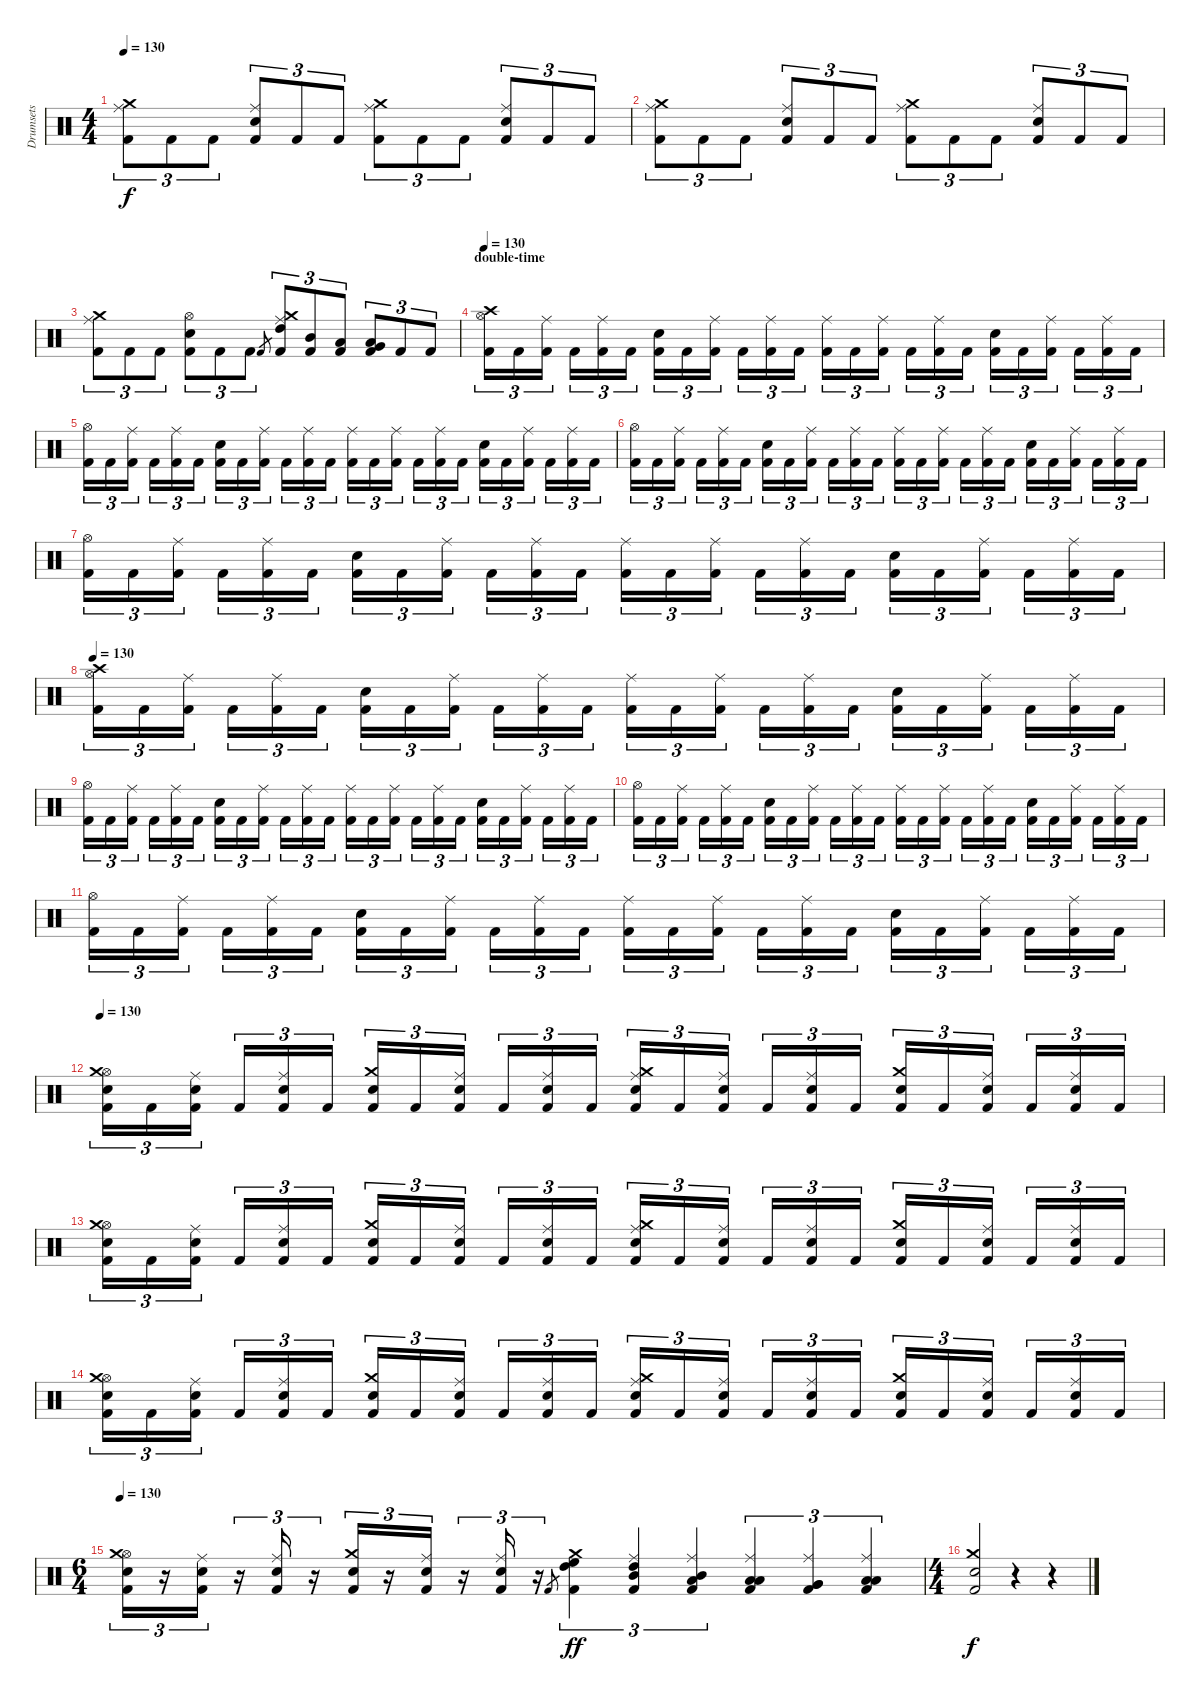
\track ("Drumsets" "Drumsets") {instrument percussion}
\staff {score}
\articulation defaults
\ts (4 4)
\tempo 130
\clef neutral
\ks c
("Kick (hit) 2" "Ride (middle)" "Crash medium (hit)").8{tu (3 2) dy f} "Kick (hit) 2".8{tu (3 2)} "Kick (hit) 2".8{tu (3 2)} ("Kick (hit) 2" "Snare (hit) 2" "Ride (middle)").8{tu (3 2)} "Kick (hit) 2".8{tu (3 2)} "Kick (hit) 2".8{tu (3 2)} ("Kick (hit) 2" "Ride (middle)" "Crash medium (hit)").8{tu (3 2)} "Kick (hit) 2".8{tu (3 2)} "Kick (hit) 2".8{tu (3 2)} ("Kick (hit) 2" "Snare (hit) 2" "Ride (middle)").8{tu (3 2)} "Kick (hit) 2".8{tu (3 2)} "Kick (hit) 2".8{tu (3 2)} |
("Kick (hit) 2" "Ride (middle)" "Crash medium (hit)").8{tu (3 2)} "Kick (hit) 2".8{tu (3 2)} "Kick (hit) 2".8{tu (3 2)} ("Kick (hit) 2" "Snare (hit) 2" "Ride (middle)").8{tu (3 2)} "Kick (hit) 2".8{tu (3 2)} "Kick (hit) 2".8{tu (3 2)} ("Kick (hit) 2" "Ride (middle)" "Crash medium (hit)").8{tu (3 2)} "Kick (hit) 2".8{tu (3 2)} "Kick (hit) 2".8{tu (3 2)} ("Kick (hit) 2" "Snare (hit) 2" "Ride (middle)").8{tu (3 2)} "Kick (hit) 2".8{tu (3 2)} "Kick (hit) 2".8{tu (3 2)} |
("Kick (hit) 2" "Ride (middle)" "Crash medium (hit)").8{tu (3 2)} "Kick (hit) 2".8{tu (3 2)} "Kick (hit) 2".8{tu (3 2)} ("Kick (hit) 2" "Snare (hit) 2" "Hi-Hat (open)").8{tu (3 2)} "Kick (hit) 2".8{tu (3 2)} "Kick (hit) 2".8{tu (3 2)} "Kick (hit) 2".8{gr} ("Kick (hit) 2" "High Tom (hit)" "Ride (middle)" "Crash medium (hit)").8{tu (3 2)} ("Kick (hit) 2" "Mid Tom (hit)").8{tu (3 2)} ("Kick (hit) 2" "Low Tom (hit)").8{tu (3 2)} ("Kick (hit) 2" "Low Floor Tom (hit)" "Very Low Tom (hit)").8{tu (3 2)} "Kick (hit) 2".8{tu (3 2)} "Kick (hit) 2".8{tu (3 2)} |
\section ("" "double-time")
\tempo 130
("Hi-Hat (open)" "Crash high (hit)" "Kick (hit) 2").16{tu (3 2)} "Kick (hit) 2".16{tu (3 2)} ("Ride (middle)" "Kick (hit) 2").16{tu (3 2)} "Kick (hit) 2".16{tu (3 2)} ("Ride (middle)" "Kick (hit) 2").16{tu (3 2)} "Kick (hit) 2".16{tu (3 2)} ("Snare (hit) 2" "Kick (hit) 2").16{tu (3 2)} "Kick (hit) 2".16{tu (3 2)} ("Ride (middle)" "Kick (hit) 2").16{tu (3 2)} "Kick (hit) 2".16{tu (3 2)} ("Ride (middle)" "Kick (hit) 2").16{tu (3 2)} "Kick (hit) 2".16{tu (3 2)} ("Ride (middle)" "Kick (hit) 2").16{tu (3 2)} "Kick (hit) 2".16{tu (3 2)} ("Ride (middle)" "Kick (hit) 2").16{tu (3 2)} "Kick (hit) 2".16{tu (3 2)} ("Ride (middle)" "Kick (hit) 2").16{tu (3 2)} "Kick (hit) 2".16{tu (3 2)} ("Snare (hit) 2" "Kick (hit) 2").16{tu (3 2)} "Kick (hit) 2".16{tu (3 2)} ("Ride (middle)" "Kick (hit) 2").16{tu (3 2)} "Kick (hit) 2".16{tu (3 2)} ("Ride (middle)" "Kick (hit) 2").16{tu (3 2)} "Kick (hit) 2".16{tu (3 2)} |
("Hi-Hat (open)" "Kick (hit) 2").16{tu (3 2)} "Kick (hit) 2".16{tu (3 2)} ("Ride (middle)" "Kick (hit) 2").16{tu (3 2)} "Kick (hit) 2".16{tu (3 2)} ("Ride (middle)" "Kick (hit) 2").16{tu (3 2)} "Kick (hit) 2".16{tu (3 2)} ("Snare (hit) 2" "Kick (hit) 2").16{tu (3 2)} "Kick (hit) 2".16{tu (3 2)} ("Ride (middle)" "Kick (hit) 2").16{tu (3 2)} "Kick (hit) 2".16{tu (3 2)} ("Ride (middle)" "Kick (hit) 2").16{tu (3 2)} "Kick (hit) 2".16{tu (3 2)} ("Ride (middle)" "Kick (hit) 2").16{tu (3 2)} "Kick (hit) 2".16{tu (3 2)} ("Ride (middle)" "Kick (hit) 2").16{tu (3 2)} "Kick (hit) 2".16{tu (3 2)} ("Ride (middle)" "Kick (hit) 2").16{tu (3 2)} "Kick (hit) 2".16{tu (3 2)} ("Snare (hit) 2" "Kick (hit) 2").16{tu (3 2)} "Kick (hit) 2".16{tu (3 2)} ("Ride (middle)" "Kick (hit) 2").16{tu (3 2)} "Kick (hit) 2".16{tu (3 2)} ("Ride (middle)" "Kick (hit) 2").16{tu (3 2)} "Kick (hit) 2".16{tu (3 2)} |
("Hi-Hat (open)" "Kick (hit) 2").16{tu (3 2)} "Kick (hit) 2".16{tu (3 2)} ("Ride (middle)" "Kick (hit) 2").16{tu (3 2)} "Kick (hit) 2".16{tu (3 2)} ("Ride (middle)" "Kick (hit) 2").16{tu (3 2)} "Kick (hit) 2".16{tu (3 2)} ("Snare (hit) 2" "Kick (hit) 2").16{tu (3 2)} "Kick (hit) 2".16{tu (3 2)} ("Ride (middle)" "Kick (hit) 2").16{tu (3 2)} "Kick (hit) 2".16{tu (3 2)} ("Ride (middle)" "Kick (hit) 2").16{tu (3 2)} "Kick (hit) 2".16{tu (3 2)} ("Ride (middle)" "Kick (hit) 2").16{tu (3 2)} "Kick (hit) 2".16{tu (3 2)} ("Ride (middle)" "Kick (hit) 2").16{tu (3 2)} "Kick (hit) 2".16{tu (3 2)} ("Ride (middle)" "Kick (hit) 2").16{tu (3 2)} "Kick (hit) 2".16{tu (3 2)} ("Snare (hit) 2" "Kick (hit) 2").16{tu (3 2)} "Kick (hit) 2".16{tu (3 2)} ("Ride (middle)" "Kick (hit) 2").16{tu (3 2)} "Kick (hit) 2".16{tu (3 2)} ("Ride (middle)" "Kick (hit) 2").16{tu (3 2)} "Kick (hit) 2".16{tu (3 2)} |
("Hi-Hat (open)" "Kick (hit) 2").16{tu (3 2)} "Kick (hit) 2".16{tu (3 2)} ("Ride (middle)" "Kick (hit) 2").16{tu (3 2)} "Kick (hit) 2".16{tu (3 2)} ("Ride (middle)" "Kick (hit) 2").16{tu (3 2)} "Kick (hit) 2".16{tu (3 2)} ("Snare (hit) 2" "Kick (hit) 2").16{tu (3 2)} "Kick (hit) 2".16{tu (3 2)} ("Ride (middle)" "Kick (hit) 2").16{tu (3 2)} "Kick (hit) 2".16{tu (3 2)} ("Ride (middle)" "Kick (hit) 2").16{tu (3 2)} "Kick (hit) 2".16{tu (3 2)} ("Ride (middle)" "Kick (hit) 2").16{tu (3 2)} "Kick (hit) 2".16{tu (3 2)} ("Ride (middle)" "Kick (hit) 2").16{tu (3 2)} "Kick (hit) 2".16{tu (3 2)} ("Ride (middle)" "Kick (hit) 2").16{tu (3 2)} "Kick (hit) 2".16{tu (3 2)} ("Snare (hit) 2" "Kick (hit) 2").16{tu (3 2)} "Kick (hit) 2".16{tu (3 2)} ("Ride (middle)" "Kick (hit) 2").16{tu (3 2)} "Kick (hit) 2".16{tu (3 2)} ("Ride (middle)" "Kick (hit) 2").16{tu (3 2)} "Kick (hit) 2".16{tu (3 2)} |
\tempo 130
("Hi-Hat (open)" "Crash high (hit)" "Kick (hit) 2").16{tu (3 2)} "Kick (hit) 2".16{tu (3 2)} ("Ride (middle)" "Kick (hit) 2").16{tu (3 2)} "Kick (hit) 2".16{tu (3 2)} ("Ride (middle)" "Kick (hit) 2").16{tu (3 2)} "Kick (hit) 2".16{tu (3 2)} ("Snare (hit) 2" "Kick (hit) 2").16{tu (3 2)} "Kick (hit) 2".16{tu (3 2)} ("Ride (middle)" "Kick (hit) 2").16{tu (3 2)} "Kick (hit) 2".16{tu (3 2)} ("Ride (middle)" "Kick (hit) 2").16{tu (3 2)} "Kick (hit) 2".16{tu (3 2)} ("Ride (middle)" "Kick (hit) 2").16{tu (3 2)} "Kick (hit) 2".16{tu (3 2)} ("Ride (middle)" "Kick (hit) 2").16{tu (3 2)} "Kick (hit) 2".16{tu (3 2)} ("Ride (middle)" "Kick (hit) 2").16{tu (3 2)} "Kick (hit) 2".16{tu (3 2)} ("Snare (hit) 2" "Kick (hit) 2").16{tu (3 2)} "Kick (hit) 2".16{tu (3 2)} ("Ride (middle)" "Kick (hit) 2").16{tu (3 2)} "Kick (hit) 2".16{tu (3 2)} ("Ride (middle)" "Kick (hit) 2").16{tu (3 2)} "Kick (hit) 2".16{tu (3 2)} |
("Hi-Hat (open)" "Kick (hit) 2").16{tu (3 2)} "Kick (hit) 2".16{tu (3 2)} ("Ride (middle)" "Kick (hit) 2").16{tu (3 2)} "Kick (hit) 2".16{tu (3 2)} ("Ride (middle)" "Kick (hit) 2").16{tu (3 2)} "Kick (hit) 2".16{tu (3 2)} ("Snare (hit) 2" "Kick (hit) 2").16{tu (3 2)} "Kick (hit) 2".16{tu (3 2)} ("Ride (middle)" "Kick (hit) 2").16{tu (3 2)} "Kick (hit) 2".16{tu (3 2)} ("Ride (middle)" "Kick (hit) 2").16{tu (3 2)} "Kick (hit) 2".16{tu (3 2)} ("Ride (middle)" "Kick (hit) 2").16{tu (3 2)} "Kick (hit) 2".16{tu (3 2)} ("Ride (middle)" "Kick (hit) 2").16{tu (3 2)} "Kick (hit) 2".16{tu (3 2)} ("Ride (middle)" "Kick (hit) 2").16{tu (3 2)} "Kick (hit) 2".16{tu (3 2)} ("Snare (hit) 2" "Kick (hit) 2").16{tu (3 2)} "Kick (hit) 2".16{tu (3 2)} ("Ride (middle)" "Kick (hit) 2").16{tu (3 2)} "Kick (hit) 2".16{tu (3 2)} ("Ride (middle)" "Kick (hit) 2").16{tu (3 2)} "Kick (hit) 2".16{tu (3 2)} |
("Hi-Hat (open)" "Kick (hit) 2").16{tu (3 2)} "Kick (hit) 2".16{tu (3 2)} ("Ride (middle)" "Kick (hit) 2").16{tu (3 2)} "Kick (hit) 2".16{tu (3 2)} ("Ride (middle)" "Kick (hit) 2").16{tu (3 2)} "Kick (hit) 2".16{tu (3 2)} ("Snare (hit) 2" "Kick (hit) 2").16{tu (3 2)} "Kick (hit) 2".16{tu (3 2)} ("Ride (middle)" "Kick (hit) 2").16{tu (3 2)} "Kick (hit) 2".16{tu (3 2)} ("Ride (middle)" "Kick (hit) 2").16{tu (3 2)} "Kick (hit) 2".16{tu (3 2)} ("Ride (middle)" "Kick (hit) 2").16{tu (3 2)} "Kick (hit) 2".16{tu (3 2)} ("Ride (middle)" "Kick (hit) 2").16{tu (3 2)} "Kick (hit) 2".16{tu (3 2)} ("Ride (middle)" "Kick (hit) 2").16{tu (3 2)} "Kick (hit) 2".16{tu (3 2)} ("Snare (hit) 2" "Kick (hit) 2").16{tu (3 2)} "Kick (hit) 2".16{tu (3 2)} ("Ride (middle)" "Kick (hit) 2").16{tu (3 2)} "Kick (hit) 2".16{tu (3 2)} ("Ride (middle)" "Kick (hit) 2").16{tu (3 2)} "Kick (hit) 2".16{tu (3 2)} |
("Hi-Hat (open)" "Kick (hit) 2").16{tu (3 2)} "Kick (hit) 2".16{tu (3 2)} ("Ride (middle)" "Kick (hit) 2").16{tu (3 2)} "Kick (hit) 2".16{tu (3 2)} ("Ride (middle)" "Kick (hit) 2").16{tu (3 2)} "Kick (hit) 2".16{tu (3 2)} ("Snare (hit) 2" "Kick (hit) 2").16{tu (3 2)} "Kick (hit) 2".16{tu (3 2)} ("Ride (middle)" "Kick (hit) 2").16{tu (3 2)} "Kick (hit) 2".16{tu (3 2)} ("Ride (middle)" "Kick (hit) 2").16{tu (3 2)} "Kick (hit) 2".16{tu (3 2)} ("Ride (middle)" "Kick (hit) 2").16{tu (3 2)} "Kick (hit) 2".16{tu (3 2)} ("Ride (middle)" "Kick (hit) 2").16{tu (3 2)} "Kick (hit) 2".16{tu (3 2)} ("Ride (middle)" "Kick (hit) 2").16{tu (3 2)} "Kick (hit) 2".16{tu (3 2)} ("Snare (hit) 2" "Kick (hit) 2").16{tu (3 2)} "Kick (hit) 2".16{tu (3 2)} ("Ride (middle)" "Kick (hit) 2").16{tu (3 2)} "Kick (hit) 2".16{tu (3 2)} ("Ride (middle)" "Kick (hit) 2").16{tu (3 2)} "Kick (hit) 2".16{tu (3 2)} |
\tempo 130
("Hi-Hat (open)" "Snare (hit) 2" "Crash medium (hit)" "Kick (hit) 2").16{tu (3 2)} "Kick (hit) 2".16{tu (3 2)} ("Ride (middle)" "Snare (hit) 2" "Kick (hit) 2").16{tu (3 2)} "Kick (hit) 2".16{tu (3 2)} ("Ride (middle)" "Snare (hit) 2" "Kick (hit) 2").16{tu (3 2)} "Kick (hit) 2".16{tu (3 2)} ("Snare (hit) 2" "Crash medium (hit)" "Kick (hit) 2").16{tu (3 2)} "Kick (hit) 2".16{tu (3 2)} ("Ride (middle)" "Snare (hit) 2" "Kick (hit) 2").16{tu (3 2)} "Kick (hit) 2".16{tu (3 2)} ("Ride (middle)" "Snare (hit) 2" "Kick (hit) 2").16{tu (3 2)} "Kick (hit) 2".16{tu (3 2)} ("Ride (middle)" "Snare (hit) 2" "Crash medium (hit)" "Kick (hit) 2").16{tu (3 2)} "Kick (hit) 2".16{tu (3 2)} ("Ride (middle)" "Snare (hit) 2" "Kick (hit) 2").16{tu (3 2)} "Kick (hit) 2".16{tu (3 2)} ("Ride (middle)" "Snare (hit) 2" "Kick (hit) 2").16{tu (3 2)} "Kick (hit) 2".16{tu (3 2)} ("Snare (hit) 2" "Crash medium (hit)" "Kick (hit) 2").16{tu (3 2)} "Kick (hit) 2".16{tu (3 2)} ("Ride (middle)" "Snare (hit) 2" "Kick (hit) 2").16{tu (3 2)} "Kick (hit) 2".16{tu (3 2)} ("Ride (middle)" "Snare (hit) 2" "Kick (hit) 2").16{tu (3 2)} "Kick (hit) 2".16{tu (3 2)} |
("Hi-Hat (open)" "Snare (hit) 2" "Crash medium (hit)" "Kick (hit) 2").16{tu (3 2)} "Kick (hit) 2".16{tu (3 2)} ("Ride (middle)" "Snare (hit) 2" "Kick (hit) 2").16{tu (3 2)} "Kick (hit) 2".16{tu (3 2)} ("Ride (middle)" "Snare (hit) 2" "Kick (hit) 2").16{tu (3 2)} "Kick (hit) 2".16{tu (3 2)} ("Snare (hit) 2" "Crash medium (hit)" "Kick (hit) 2").16{tu (3 2)} "Kick (hit) 2".16{tu (3 2)} ("Ride (middle)" "Snare (hit) 2" "Kick (hit) 2").16{tu (3 2)} "Kick (hit) 2".16{tu (3 2)} ("Ride (middle)" "Snare (hit) 2" "Kick (hit) 2").16{tu (3 2)} "Kick (hit) 2".16{tu (3 2)} ("Ride (middle)" "Snare (hit) 2" "Crash medium (hit)" "Kick (hit) 2").16{tu (3 2)} "Kick (hit) 2".16{tu (3 2)} ("Ride (middle)" "Snare (hit) 2" "Kick (hit) 2").16{tu (3 2)} "Kick (hit) 2".16{tu (3 2)} ("Ride (middle)" "Snare (hit) 2" "Kick (hit) 2").16{tu (3 2)} "Kick (hit) 2".16{tu (3 2)} ("Snare (hit) 2" "Crash medium (hit)" "Kick (hit) 2").16{tu (3 2)} "Kick (hit) 2".16{tu (3 2)} ("Ride (middle)" "Snare (hit) 2" "Kick (hit) 2").16{tu (3 2)} "Kick (hit) 2".16{tu (3 2)} ("Ride (middle)" "Snare (hit) 2" "Kick (hit) 2").16{tu (3 2)} "Kick (hit) 2".16{tu (3 2)} |
("Hi-Hat (open)" "Snare (hit) 2" "Crash medium (hit)" "Kick (hit) 2").16{tu (3 2)} "Kick (hit) 2".16{tu (3 2)} ("Ride (middle)" "Snare (hit) 2" "Kick (hit) 2").16{tu (3 2)} "Kick (hit) 2".16{tu (3 2)} ("Ride (middle)" "Snare (hit) 2" "Kick (hit) 2").16{tu (3 2)} "Kick (hit) 2".16{tu (3 2)} ("Snare (hit) 2" "Crash medium (hit)" "Kick (hit) 2").16{tu (3 2)} "Kick (hit) 2".16{tu (3 2)} ("Ride (middle)" "Snare (hit) 2" "Kick (hit) 2").16{tu (3 2)} "Kick (hit) 2".16{tu (3 2)} ("Ride (middle)" "Snare (hit) 2" "Kick (hit) 2").16{tu (3 2)} "Kick (hit) 2".16{tu (3 2)} ("Ride (middle)" "Snare (hit) 2" "Crash medium (hit)" "Kick (hit) 2").16{tu (3 2)} "Kick (hit) 2".16{tu (3 2)} ("Ride (middle)" "Snare (hit) 2" "Kick (hit) 2").16{tu (3 2)} "Kick (hit) 2".16{tu (3 2)} ("Ride (middle)" "Snare (hit) 2" "Kick (hit) 2").16{tu (3 2)} "Kick (hit) 2".16{tu (3 2)} ("Snare (hit) 2" "Crash medium (hit)" "Kick (hit) 2").16{tu (3 2)} "Kick (hit) 2".16{tu (3 2)} ("Ride (middle)" "Snare (hit) 2" "Kick (hit) 2").16{tu (3 2)} "Kick (hit) 2".16{tu (3 2)} ("Ride (middle)" "Snare (hit) 2" "Kick (hit) 2").16{tu (3 2)} "Kick (hit) 2".16{tu (3 2)} |
\ts (6 4)
\tempo 130
("Hi-Hat (open)" "Snare (hit) 2" "Crash medium (hit)" "Kick (hit) 2").16{tu (3 2)} r.16{tu (3 2)} ("Ride (middle)" "Snare (hit) 2" "Kick (hit) 2").16{tu (3 2)} r.16{tu (3 2)} ("Ride (middle)" "Snare (hit) 2" "Kick (hit) 2").16{tu (3 2)} r.16{tu (3 2)} ("Snare (hit) 2" "Crash medium (hit)" "Kick (hit) 2").16{tu (3 2)} r.16{tu (3 2)} ("Ride (middle)" "Snare (hit) 2" "Kick (hit) 2").16{tu (3 2)} r.16{tu (3 2)} ("Ride (middle)" "Snare (hit) 2" "Kick (hit) 2").16{tu (3 2)} r.16{tu (3 2)} "Kick (hit) 2".8{gr} ("Crash medium (hit)" "High Floor Tom (hit)" "High Tom (hit)" "Kick (hit) 2").4{tu (3 2) dy ff} ("Ride (middle)" "High Tom (hit)" "Mid Tom (hit)" "Kick (hit) 2").4{tu (3 2)} ("Ride (middle)" "Mid Tom (hit)" "Low Tom (hit)" "Kick (hit) 2").4{tu (3 2)} ("Ride (middle)" "Low Tom (hit)" "Low Tom (hit)" "Kick (hit) 2").4{tu (3 2)} ("Ride (middle)" "Very Low Tom (hit)" "Very Low Tom (hit)" "Kick (hit) 2").4{tu (3 2)} ("Ride (middle)" "Low Floor Tom (hit)" "Low Floor Tom (hit)" "Kick (hit) 2").4{tu (3 2)} |
\ts (4 4)
("Snare (hit) 2" "Crash medium (hit)" "Kick (hit) 2").2{dy f} r.4 r.4
